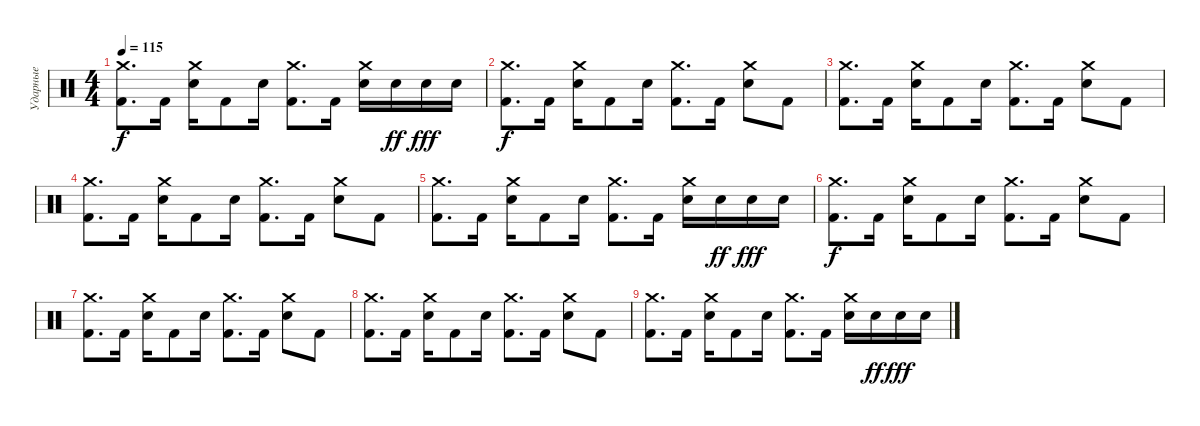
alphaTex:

\track ("Ударные" "Ударные") {instrument percussion}
\staff {score}
\articulation defaults
\ts (4 4)
\tempo 115
\clef neutral
\ks c
("Kick (hit) 2" "Crash medium (hit)").8{d dy f} "Kick (hit) 2".16 ("Snare (hit) 2" "Crash medium (hit)").16 "Kick (hit) 2".8 "Snare (hit) 2".16 ("Kick (hit) 2" "Crash medium (hit)").8{d} "Kick (hit) 2".16 ("Snare (hit) 2" "Crash medium (hit)").16 "Snare (hit) 2".16{dy ff} "Snare (hit) 2".16{dy fff} "Snare (hit) 2".16 |
("Kick (hit) 2" "Crash medium (hit)").8{d dy f} "Kick (hit) 2".16 ("Snare (hit) 2" "Crash medium (hit)").16 "Kick (hit) 2".8 "Snare (hit) 2".16 ("Kick (hit) 2" "Crash medium (hit)").8{d} "Kick (hit) 2".16 ("Snare (hit) 2" "Crash medium (hit)").8 "Kick (hit) 2".8 |
("Kick (hit) 2" "Crash medium (hit)").8{d} "Kick (hit) 2".16 ("Snare (hit) 2" "Crash medium (hit)").16 "Kick (hit) 2".8 "Snare (hit) 2".16 ("Kick (hit) 2" "Crash medium (hit)").8{d} "Kick (hit) 2".16 ("Snare (hit) 2" "Crash medium (hit)").8 "Kick (hit) 2".8 |
("Kick (hit) 2" "Crash medium (hit)").8{d} "Kick (hit) 2".16 ("Snare (hit) 2" "Crash medium (hit)").16 "Kick (hit) 2".8 "Snare (hit) 2".16 ("Kick (hit) 2" "Crash medium (hit)").8{d} "Kick (hit) 2".16 ("Snare (hit) 2" "Crash medium (hit)").8 "Kick (hit) 2".8 |
("Kick (hit) 2" "Crash medium (hit)").8{d} "Kick (hit) 2".16 ("Snare (hit) 2" "Crash medium (hit)").16 "Kick (hit) 2".8 "Snare (hit) 2".16 ("Kick (hit) 2" "Crash medium (hit)").8{d} "Kick (hit) 2".16 ("Snare (hit) 2" "Crash medium (hit)").16 "Snare (hit) 2".16{dy ff} "Snare (hit) 2".16{dy fff} "Snare (hit) 2".16 |
("Kick (hit) 2" "Crash medium (hit)").8{d dy f} "Kick (hit) 2".16 ("Snare (hit) 2" "Crash medium (hit)").16 "Kick (hit) 2".8 "Snare (hit) 2".16 ("Kick (hit) 2" "Crash medium (hit)").8{d} "Kick (hit) 2".16 ("Snare (hit) 2" "Crash medium (hit)").8 "Kick (hit) 2".8 |
("Kick (hit) 2" "Crash medium (hit)").8{d} "Kick (hit) 2".16 ("Snare (hit) 2" "Crash medium (hit)").16 "Kick (hit) 2".8 "Snare (hit) 2".16 ("Kick (hit) 2" "Crash medium (hit)").8{d} "Kick (hit) 2".16 ("Snare (hit) 2" "Crash medium (hit)").8 "Kick (hit) 2".8 |
("Kick (hit) 2" "Crash medium (hit)").8{d} "Kick (hit) 2".16 ("Snare (hit) 2" "Crash medium (hit)").16 "Kick (hit) 2".8 "Snare (hit) 2".16 ("Kick (hit) 2" "Crash medium (hit)").8{d} "Kick (hit) 2".16 ("Snare (hit) 2" "Crash medium (hit)").8 "Kick (hit) 2".8 |
("Kick (hit) 2" "Crash medium (hit)").8{d} "Kick (hit) 2".16 ("Snare (hit) 2" "Crash medium (hit)").16 "Kick (hit) 2".8 "Snare (hit) 2".16 ("Kick (hit) 2" "Crash medium (hit)").8{d} "Kick (hit) 2".16 ("Snare (hit) 2" "Crash medium (hit)").16 "Snare (hit) 2".16{dy ff} "Snare (hit) 2".16{dy fff} "Snare (hit) 2".16
